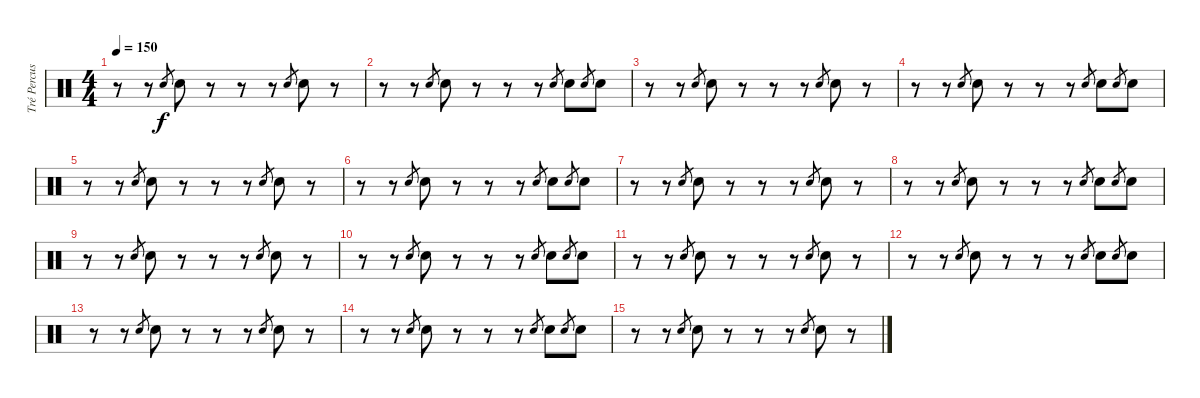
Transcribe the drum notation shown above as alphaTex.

\track ("Tré Percussion" "Tré Percus") {instrument percussion}
\staff {score}
\articulation defaults
\ts (4 4)
\tempo 150
\clef neutral
\ks c
r.8{dy f} r.8 "Hand Clap (hit)".8{gr} "Hand Clap (hit)".8 r.8 r.8 r.8 "Hand Clap (hit)".8{gr} "Hand Clap (hit)".8 r.8 |
r.8 r.8 "Hand Clap (hit)".8{gr} "Hand Clap (hit)".8 r.8 r.8 r.8 "Hand Clap (hit)".8{gr} "Hand Clap (hit)".8 "Hand Clap (hit)".8{gr} "Hand Clap (hit)".8 |
r.8 r.8 "Hand Clap (hit)".8{gr} "Hand Clap (hit)".8 r.8 r.8 r.8 "Hand Clap (hit)".8{gr} "Hand Clap (hit)".8 r.8 |
r.8 r.8 "Hand Clap (hit)".8{gr} "Hand Clap (hit)".8 r.8 r.8 r.8 "Hand Clap (hit)".8{gr} "Hand Clap (hit)".8 "Hand Clap (hit)".8{gr} "Hand Clap (hit)".8 |
r.8 r.8 "Hand Clap (hit)".8{gr} "Hand Clap (hit)".8 r.8 r.8 r.8 "Hand Clap (hit)".8{gr} "Hand Clap (hit)".8 r.8 |
r.8 r.8 "Hand Clap (hit)".8{gr} "Hand Clap (hit)".8 r.8 r.8 r.8 "Hand Clap (hit)".8{gr} "Hand Clap (hit)".8 "Hand Clap (hit)".8{gr} "Hand Clap (hit)".8 |
r.8 r.8 "Hand Clap (hit)".8{gr} "Hand Clap (hit)".8 r.8 r.8 r.8 "Hand Clap (hit)".8{gr} "Hand Clap (hit)".8 r.8 |
r.8 r.8 "Hand Clap (hit)".8{gr} "Hand Clap (hit)".8 r.8 r.8 r.8 "Hand Clap (hit)".8{gr} "Hand Clap (hit)".8 "Hand Clap (hit)".8{gr} "Hand Clap (hit)".8 |
r.8 r.8 "Hand Clap (hit)".8{gr} "Hand Clap (hit)".8 r.8 r.8 r.8 "Hand Clap (hit)".8{gr} "Hand Clap (hit)".8 r.8 |
r.8 r.8 "Hand Clap (hit)".8{gr} "Hand Clap (hit)".8 r.8 r.8 r.8 "Hand Clap (hit)".8{gr} "Hand Clap (hit)".8 "Hand Clap (hit)".8{gr} "Hand Clap (hit)".8 |
r.8 r.8 "Hand Clap (hit)".8{gr} "Hand Clap (hit)".8 r.8 r.8 r.8 "Hand Clap (hit)".8{gr} "Hand Clap (hit)".8 r.8 |
r.8 r.8 "Hand Clap (hit)".8{gr} "Hand Clap (hit)".8 r.8 r.8 r.8 "Hand Clap (hit)".8{gr} "Hand Clap (hit)".8 "Hand Clap (hit)".8{gr} "Hand Clap (hit)".8 |
r.8 r.8 "Hand Clap (hit)".8{gr} "Hand Clap (hit)".8 r.8 r.8 r.8 "Hand Clap (hit)".8{gr} "Hand Clap (hit)".8 r.8 |
r.8 r.8 "Hand Clap (hit)".8{gr} "Hand Clap (hit)".8 r.8 r.8 r.8 "Hand Clap (hit)".8{gr} "Hand Clap (hit)".8 "Hand Clap (hit)".8{gr} "Hand Clap (hit)".8 |
r.8 r.8 "Hand Clap (hit)".8{gr} "Hand Clap (hit)".8 r.8 r.8 r.8 "Hand Clap (hit)".8{gr} "Hand Clap (hit)".8 r.8
